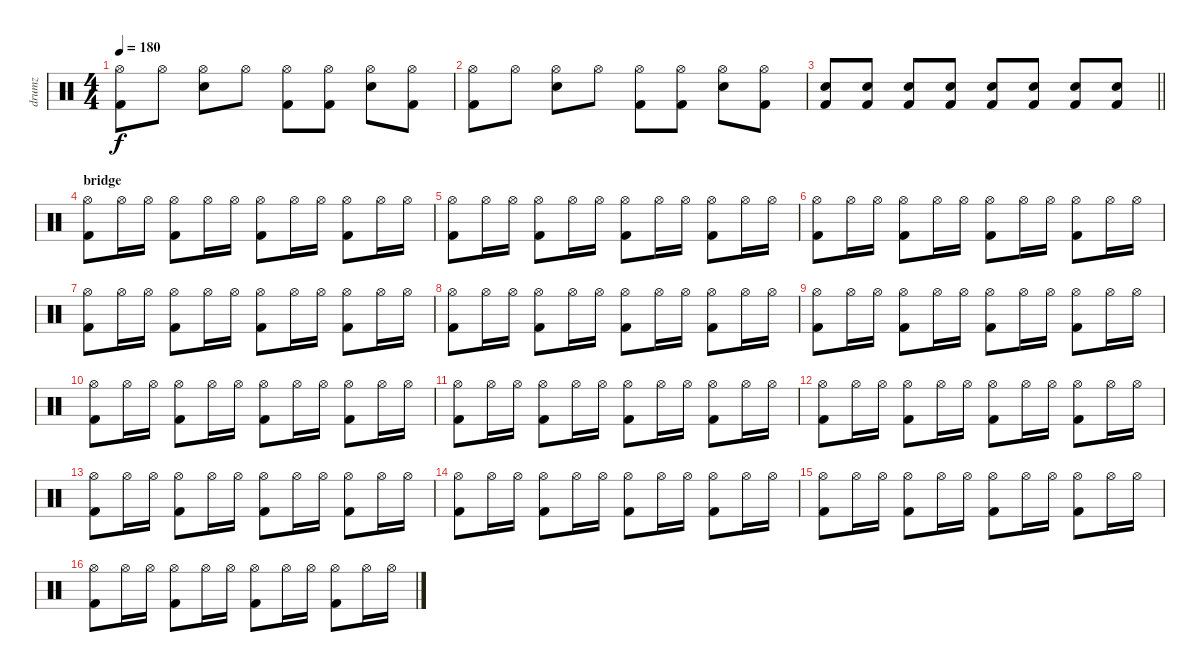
\track ("drumz" "drumz") {instrument percussion}
\staff {score}
\articulation defaults
\ts (4 4)
\tempo 180
\clef neutral
\ks c
("Hi-Hat (open)" "Kick (hit) 2").8{dy f} "Hi-Hat (open)".8 ("Hi-Hat (open)" "Electric Snare (hit)").8 "Hi-Hat (open)".8 ("Hi-Hat (open)" "Kick (hit) 2").8 ("Hi-Hat (open)" "Kick (hit) 2").8 ("Hi-Hat (open)" "Electric Snare (hit)").8 ("Hi-Hat (open)" "Kick (hit) 2").8 |
("Hi-Hat (open)" "Kick (hit) 2").8 "Hi-Hat (open)".8 ("Hi-Hat (open)" "Electric Snare (hit)").8 "Hi-Hat (open)".8 ("Hi-Hat (open)" "Kick (hit) 2").8 ("Hi-Hat (open)" "Kick (hit) 2").8 ("Hi-Hat (open)" "Electric Snare (hit)").8 ("Hi-Hat (open)" "Kick (hit) 2").8 |
\barLineRight lightlight
("Electric Snare (hit)" "Kick (hit) 2").8 ("Electric Snare (hit)" "Kick (hit) 2").8 ("Electric Snare (hit)" "Kick (hit) 2").8 ("Electric Snare (hit)" "Kick (hit) 2").8 ("Electric Snare (hit)" "Kick (hit) 2").8 ("Electric Snare (hit)" "Kick (hit) 2").8 ("Electric Snare (hit)" "Kick (hit) 2").8 ("Electric Snare (hit)" "Kick (hit) 2").8 |
\section ("" "bridge")
("Hi-Hat (open)" "Kick (hit) 2").8 "Hi-Hat (open)".16 "Hi-Hat (open)".16 ("Hi-Hat (open)" "Kick (hit) 2").8 "Hi-Hat (open)".16 "Hi-Hat (open)".16 ("Hi-Hat (open)" "Kick (hit) 2").8 "Hi-Hat (open)".16 "Hi-Hat (open)".16 ("Hi-Hat (open)" "Kick (hit) 2").8 "Hi-Hat (open)".16 "Hi-Hat (open)".16 |
("Hi-Hat (open)" "Kick (hit) 2").8 "Hi-Hat (open)".16 "Hi-Hat (open)".16 ("Hi-Hat (open)" "Kick (hit) 2").8 "Hi-Hat (open)".16 "Hi-Hat (open)".16 ("Hi-Hat (open)" "Kick (hit) 2").8 "Hi-Hat (open)".16 "Hi-Hat (open)".16 ("Hi-Hat (open)" "Kick (hit) 2").8 "Hi-Hat (open)".16 "Hi-Hat (open)".16 |
("Hi-Hat (open)" "Kick (hit) 2").8 "Hi-Hat (open)".16 "Hi-Hat (open)".16 ("Hi-Hat (open)" "Kick (hit) 2").8 "Hi-Hat (open)".16 "Hi-Hat (open)".16 ("Hi-Hat (open)" "Kick (hit) 2").8 "Hi-Hat (open)".16 "Hi-Hat (open)".16 ("Hi-Hat (open)" "Kick (hit) 2").8 "Hi-Hat (open)".16 "Hi-Hat (open)".16 |
("Hi-Hat (open)" "Kick (hit) 2").8 "Hi-Hat (open)".16 "Hi-Hat (open)".16 ("Hi-Hat (open)" "Kick (hit) 2").8 "Hi-Hat (open)".16 "Hi-Hat (open)".16 ("Hi-Hat (open)" "Kick (hit) 2").8 "Hi-Hat (open)".16 "Hi-Hat (open)".16 ("Hi-Hat (open)" "Kick (hit) 2").8 "Hi-Hat (open)".16 "Hi-Hat (open)".16 |
("Hi-Hat (open)" "Kick (hit) 2").8 "Hi-Hat (open)".16 "Hi-Hat (open)".16 ("Hi-Hat (open)" "Kick (hit) 2").8 "Hi-Hat (open)".16 "Hi-Hat (open)".16 ("Hi-Hat (open)" "Kick (hit) 2").8 "Hi-Hat (open)".16 "Hi-Hat (open)".16 ("Hi-Hat (open)" "Kick (hit) 2").8 "Hi-Hat (open)".16 "Hi-Hat (open)".16 |
("Hi-Hat (open)" "Kick (hit) 2").8 "Hi-Hat (open)".16 "Hi-Hat (open)".16 ("Hi-Hat (open)" "Kick (hit) 2").8 "Hi-Hat (open)".16 "Hi-Hat (open)".16 ("Hi-Hat (open)" "Kick (hit) 2").8 "Hi-Hat (open)".16 "Hi-Hat (open)".16 ("Hi-Hat (open)" "Kick (hit) 2").8 "Hi-Hat (open)".16 "Hi-Hat (open)".16 |
("Hi-Hat (open)" "Kick (hit) 2").8 "Hi-Hat (open)".16 "Hi-Hat (open)".16 ("Hi-Hat (open)" "Kick (hit) 2").8 "Hi-Hat (open)".16 "Hi-Hat (open)".16 ("Hi-Hat (open)" "Kick (hit) 2").8 "Hi-Hat (open)".16 "Hi-Hat (open)".16 ("Hi-Hat (open)" "Kick (hit) 2").8 "Hi-Hat (open)".16 "Hi-Hat (open)".16 |
("Hi-Hat (open)" "Kick (hit) 2").8 "Hi-Hat (open)".16 "Hi-Hat (open)".16 ("Hi-Hat (open)" "Kick (hit) 2").8 "Hi-Hat (open)".16 "Hi-Hat (open)".16 ("Hi-Hat (open)" "Kick (hit) 2").8 "Hi-Hat (open)".16 "Hi-Hat (open)".16 ("Hi-Hat (open)" "Kick (hit) 2").8 "Hi-Hat (open)".16 "Hi-Hat (open)".16 |
("Hi-Hat (open)" "Kick (hit) 2").8 "Hi-Hat (open)".16 "Hi-Hat (open)".16 ("Hi-Hat (open)" "Kick (hit) 2").8 "Hi-Hat (open)".16 "Hi-Hat (open)".16 ("Hi-Hat (open)" "Kick (hit) 2").8 "Hi-Hat (open)".16 "Hi-Hat (open)".16 ("Hi-Hat (open)" "Kick (hit) 2").8 "Hi-Hat (open)".16 "Hi-Hat (open)".16 |
("Hi-Hat (open)" "Kick (hit) 2").8 "Hi-Hat (open)".16 "Hi-Hat (open)".16 ("Hi-Hat (open)" "Kick (hit) 2").8 "Hi-Hat (open)".16 "Hi-Hat (open)".16 ("Hi-Hat (open)" "Kick (hit) 2").8 "Hi-Hat (open)".16 "Hi-Hat (open)".16 ("Hi-Hat (open)" "Kick (hit) 2").8 "Hi-Hat (open)".16 "Hi-Hat (open)".16 |
("Hi-Hat (open)" "Kick (hit) 2").8 "Hi-Hat (open)".16 "Hi-Hat (open)".16 ("Hi-Hat (open)" "Kick (hit) 2").8 "Hi-Hat (open)".16 "Hi-Hat (open)".16 ("Hi-Hat (open)" "Kick (hit) 2").8 "Hi-Hat (open)".16 "Hi-Hat (open)".16 ("Hi-Hat (open)" "Kick (hit) 2").8 "Hi-Hat (open)".16 "Hi-Hat (open)".16 |
("Hi-Hat (open)" "Kick (hit) 2").8 "Hi-Hat (open)".16 "Hi-Hat (open)".16 ("Hi-Hat (open)" "Kick (hit) 2").8 "Hi-Hat (open)".16 "Hi-Hat (open)".16 ("Hi-Hat (open)" "Kick (hit) 2").8 "Hi-Hat (open)".16 "Hi-Hat (open)".16 ("Hi-Hat (open)" "Kick (hit) 2").8 "Hi-Hat (open)".16 "Hi-Hat (open)".16 |
("Hi-Hat (open)" "Kick (hit) 2").8 "Hi-Hat (open)".16 "Hi-Hat (open)".16 ("Hi-Hat (open)" "Kick (hit) 2").8 "Hi-Hat (open)".16 "Hi-Hat (open)".16 ("Hi-Hat (open)" "Kick (hit) 2").8 "Hi-Hat (open)".16 "Hi-Hat (open)".16 ("Hi-Hat (open)" "Kick (hit) 2").8 "Hi-Hat (open)".16 "Hi-Hat (open)".16
